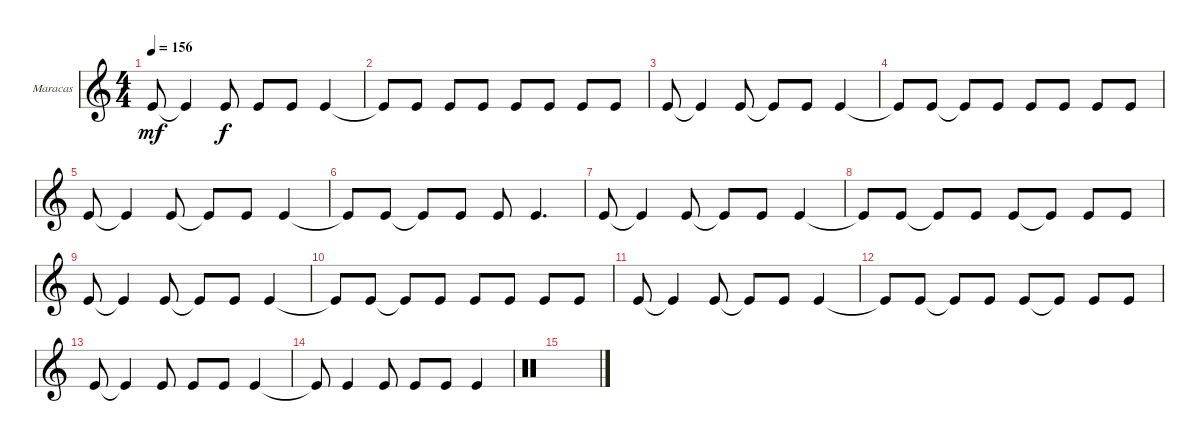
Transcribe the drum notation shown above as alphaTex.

\defaultSystemsLayout 4
\bracketExtendMode groupsimilarinstruments
\firstSystemTrackNameOrientation horizontal
\otherSystemsTrackNameOrientation horizontal
\track ("Maracas" "Maracas") {instrument percussion}
\staff {score}
\articulation defaults
\ts (4 4)
\tempo 156
\clef g2
\scale
0.333333
\ks c "Kick (hit)".8{dy mf} "Kick (hit)"{t}.4 "Kick (hit)".8{dy f} "Kick (hit)".8 "Kick (hit)".8 "Kick (hit)".4
|
\scale
0.333333 "Kick (hit)"{t}.8 "Kick (hit)".8 "Kick (hit)".8 "Kick (hit)".8 "Kick (hit)".8 "Kick (hit)".8 "Kick (hit)".8 "Kick (hit)".8 |
\scale
0.333333 "Kick (hit)".8 "Kick (hit)"{t}.4 "Kick (hit)".8 "Kick (hit)"{t}.8 "Kick (hit)".8 "Kick (hit)".4 |
\scale
0.333333 "Kick (hit)"{t}.8 "Kick (hit)".8 "Kick (hit)"{t}.8 "Kick (hit)".8 "Kick (hit)".8 "Kick (hit)".8 "Kick (hit)".8 "Kick (hit)".8 |
\scale
0.333333 "Kick (hit)".8 "Kick (hit)"{t}.4 "Kick (hit)".8 "Kick (hit)"{t}.8 "Kick (hit)".8 "Kick (hit)".4 |
\scale
0.333333 "Kick (hit)"{t}.8 "Kick (hit)".8 "Kick (hit)"{t}.8 "Kick (hit)".8 "Kick (hit)".8 "Kick (hit)".4{d} |
\scale
0.333333 "Kick (hit)".8 "Kick (hit)"{t}.4 "Kick (hit)".8 "Kick (hit)"{t}.8 "Kick (hit)".8 "Kick (hit)".4 |
\scale
0.333333 "Kick (hit)"{t}.8 "Kick (hit)".8 "Kick (hit)"{t}.8 "Kick (hit)".8 "Kick (hit)".8 "Kick (hit)"{t}.8 "Kick (hit)".8 "Kick (hit)".8 |
\scale
0.333333 "Kick (hit)".8 "Kick (hit)"{t}.4 "Kick (hit)".8 "Kick (hit)"{t}.8 "Kick (hit)".8 "Kick (hit)".4 |
\scale
0.333333 "Kick (hit)"{t}.8 "Kick (hit)".8 "Kick (hit)"{t}.8 "Kick (hit)".8 "Kick (hit)".8 "Kick (hit)".8 "Kick (hit)".8 "Kick (hit)".8 |
\scale
0.333333 "Kick (hit)".8 "Kick (hit)"{t}.4 "Kick (hit)".8 "Kick (hit)"{t}.8 "Kick (hit)".8 "Kick (hit)".4 |
\scale
0.333333 "Kick (hit)"{t}.8 "Kick (hit)".8 "Kick (hit)"{t}.8 "Kick (hit)".8 "Kick (hit)".8 "Kick (hit)"{t}.8 "Kick (hit)".8 "Kick (hit)".8 |
\scale
0.333333 "Kick (hit)".8 "Kick (hit)"{t}.4 "Kick (hit)".8 "Kick (hit)".8 "Kick (hit)".8 "Kick (hit)".4 |
\scale
0.333333 "Kick (hit)"{t}.8 "Kick (hit)".4 "Kick (hit)".8 "Kick (hit)".8 "Kick (hit)".8 "Kick (hit)".4 |
\clef neutral
\scale
0.333333 |
\scale
0.333333
